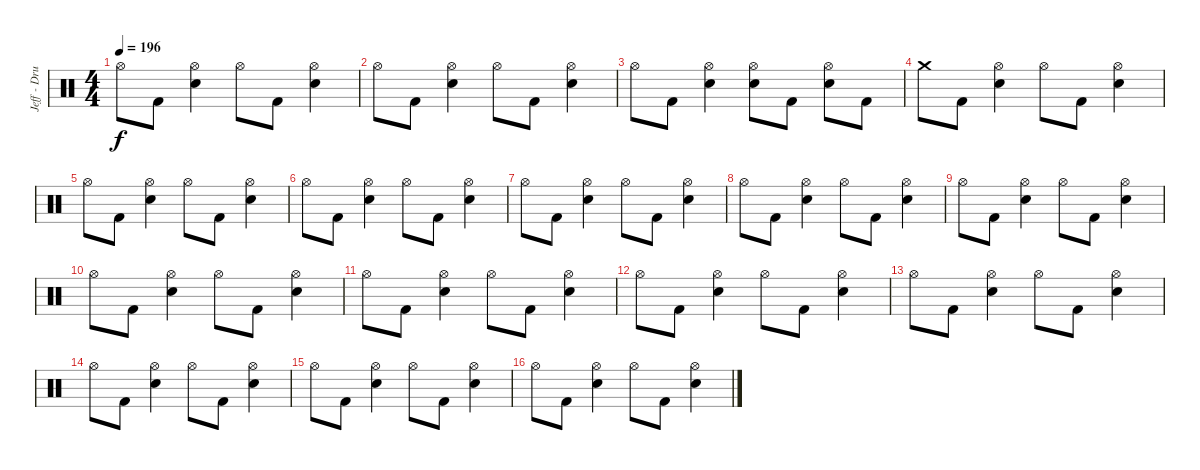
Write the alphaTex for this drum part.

\track ("Jeff - Drums" "Jeff - Dru") {instrument percussion}
\staff {score}
\articulation defaults
\ts (4 4)
\tempo 196
\clef neutral
\ks c "Hi-Hat (open)".8{dy f} "Kick (hit) 2".8
("Hi-Hat (open)" "Electric Snare (hit)").4 "Hi-Hat (open)".8 "Kick (hit) 2".8 ("Hi-Hat (open)" "Electric Snare (hit)").4 |
"Hi-Hat (open)".8 "Kick (hit) 2".8 ("Hi-Hat (open)" "Electric Snare (hit)").4 "Hi-Hat (open)".8 "Kick (hit) 2".8 ("Hi-Hat (open)" "Electric Snare (hit)").4 |
"Hi-Hat (open)".8 "Kick (hit) 2".8 ("Hi-Hat (open)" "Electric Snare (hit)").4 ("Hi-Hat (open)" "Electric Snare (hit)").8 "Kick (hit) 2".8 ("Hi-Hat (open)" "Electric Snare (hit)").8 "Kick (hit) 2".8 |
"Crash medium (hit)".8 "Kick (hit) 2".8 ("Hi-Hat (open)" "Electric Snare (hit)").4 "Hi-Hat (open)".8 "Kick (hit) 2".8 ("Hi-Hat (open)" "Electric Snare (hit)").4 |
"Hi-Hat (open)".8 "Kick (hit) 2".8 ("Hi-Hat (open)" "Electric Snare (hit)").4 "Hi-Hat (open)".8 "Kick (hit) 2".8 ("Hi-Hat (open)" "Electric Snare (hit)").4 |
"Hi-Hat (open)".8 "Kick (hit) 2".8 ("Hi-Hat (open)" "Electric Snare (hit)").4 "Hi-Hat (open)".8 "Kick (hit) 2".8 ("Hi-Hat (open)" "Electric Snare (hit)").4 |
"Hi-Hat (open)".8 "Kick (hit) 2".8 ("Hi-Hat (open)" "Electric Snare (hit)").4 "Hi-Hat (open)".8 "Kick (hit) 2".8 ("Hi-Hat (open)" "Electric Snare (hit)").4 |
"Hi-Hat (open)".8 "Kick (hit) 2".8 ("Hi-Hat (open)" "Electric Snare (hit)").4 "Hi-Hat (open)".8 "Kick (hit) 2".8 ("Hi-Hat (open)" "Electric Snare (hit)").4 |
"Hi-Hat (open)".8 "Kick (hit) 2".8 ("Hi-Hat (open)" "Electric Snare (hit)").4 "Hi-Hat (open)".8 "Kick (hit) 2".8 ("Hi-Hat (open)" "Electric Snare (hit)").4 |
"Hi-Hat (open)".8 "Kick (hit) 2".8 ("Hi-Hat (open)" "Electric Snare (hit)").4 "Hi-Hat (open)".8 "Kick (hit) 2".8 ("Hi-Hat (open)" "Electric Snare (hit)").4 |
"Hi-Hat (open)".8 "Kick (hit) 2".8 ("Hi-Hat (open)" "Electric Snare (hit)").4 "Hi-Hat (open)".8 "Kick (hit) 2".8 ("Hi-Hat (open)" "Electric Snare (hit)").4 |
"Hi-Hat (open)".8 "Kick (hit) 2".8 ("Hi-Hat (open)" "Electric Snare (hit)").4 "Hi-Hat (open)".8 "Kick (hit) 2".8 ("Hi-Hat (open)" "Electric Snare (hit)").4 |
"Hi-Hat (open)".8 "Kick (hit) 2".8 ("Hi-Hat (open)" "Electric Snare (hit)").4 "Hi-Hat (open)".8 "Kick (hit) 2".8 ("Hi-Hat (open)" "Electric Snare (hit)").4 |
"Hi-Hat (open)".8 "Kick (hit) 2".8 ("Hi-Hat (open)" "Electric Snare (hit)").4 "Hi-Hat (open)".8 "Kick (hit) 2".8 ("Hi-Hat (open)" "Electric Snare (hit)").4 |
"Hi-Hat (open)".8 "Kick (hit) 2".8 ("Hi-Hat (open)" "Electric Snare (hit)").4 "Hi-Hat (open)".8 "Kick (hit) 2".8 ("Hi-Hat (open)" "Electric Snare (hit)").4 |
"Hi-Hat (open)".8 "Kick (hit) 2".8 ("Hi-Hat (open)" "Electric Snare (hit)").4 "Hi-Hat (open)".8 "Kick (hit) 2".8 ("Hi-Hat (open)" "Electric Snare (hit)").4
